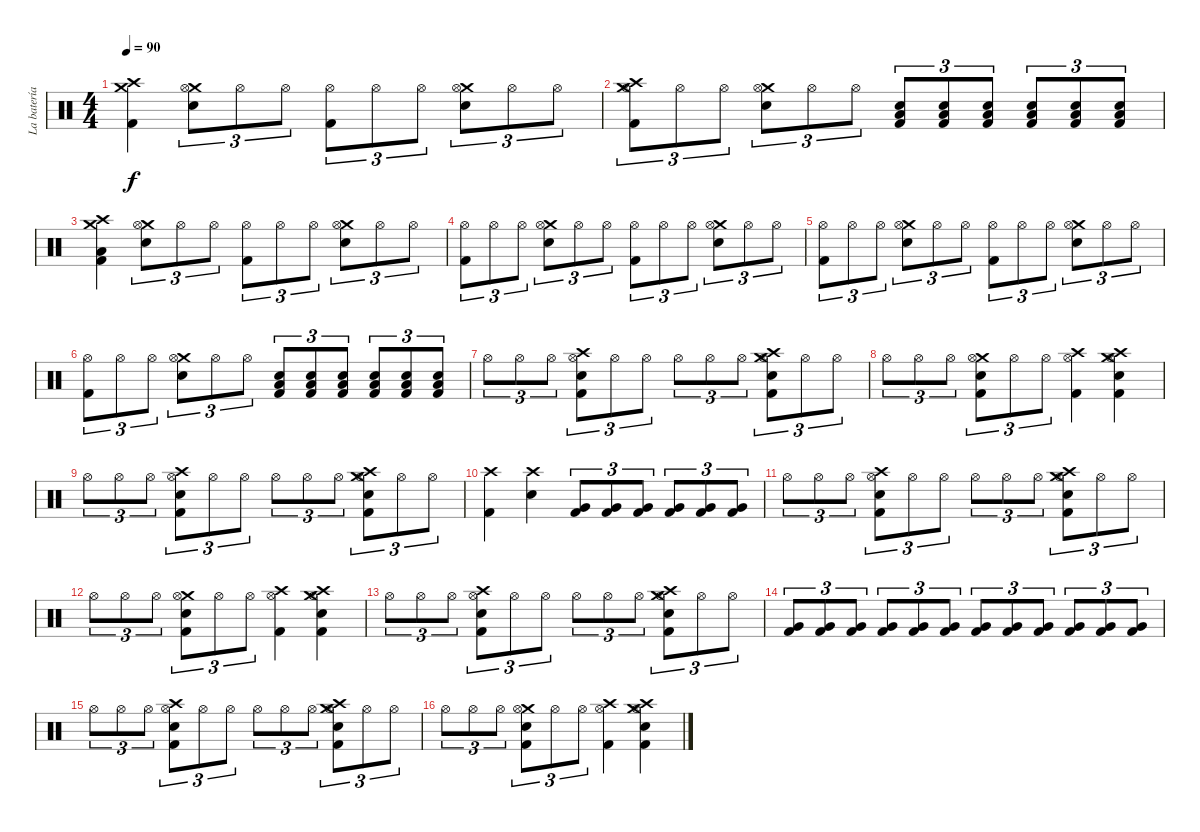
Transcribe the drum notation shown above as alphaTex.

\track ("La batería (con dos huevos xD)" "La batería") {instrument percussion}
\staff {score}
\articulation defaults
\ts (4 4)
\tempo 90
\clef neutral
\ks c
("Crash medium (hit)" "Crash high (hit)" "Kick (hit) 2").4{dy f} ("Crash medium (hit)" "Hi-Hat (open)" "Electric Snare (hit)").8{tu (3 2)} "Hi-Hat (open)".8{tu (3 2)} "Hi-Hat (open)".8{tu (3 2)} ("Hi-Hat (open)" "Kick (hit) 2").8{tu (3 2)} "Hi-Hat (open)".8{tu (3 2)} "Hi-Hat (open)".8{tu (3 2)} ("Crash medium (hit)" "Hi-Hat (open)" "Electric Snare (hit)").8{tu (3 2)} "Hi-Hat (open)".8{tu (3 2)} "Hi-Hat (open)".8{tu (3 2)} |
("Crash medium (hit)" "Crash high (hit)" "Hi-Hat (open)" "Kick (hit) 2").8{tu (3 2)} "Hi-Hat (open)".8{tu (3 2)} "Hi-Hat (open)".8{tu (3 2)} ("Crash medium (hit)" "Hi-Hat (open)" "Electric Snare (hit)").8{tu (3 2)} "Hi-Hat (open)".8{tu (3 2)} "Hi-Hat (open)".8{tu (3 2)} ("Low Floor Tom (hit)" "Electric Snare (hit)" "Kick (hit) 2").8{tu (3 2)} ("Low Floor Tom (hit)" "Electric Snare (hit)" "Kick (hit) 2").8{tu (3 2)} ("Low Floor Tom (hit)" "Electric Snare (hit)" "Kick (hit) 2").8{tu (3 2)} ("Low Floor Tom (hit)" "Electric Snare (hit)" "Kick (hit) 2").8{tu (3 2)} ("Low Floor Tom (hit)" "Electric Snare (hit)" "Kick (hit) 2").8{tu (3 2)} ("Low Floor Tom (hit)" "Electric Snare (hit)" "Kick (hit) 2").8{tu (3 2)} |
("Crash medium (hit)" "Crash high (hit)" "Low Floor Tom (hit)" "Kick (hit) 2").4 ("Crash medium (hit)" "Hi-Hat (open)" "Electric Snare (hit)").8{tu (3 2)} "Hi-Hat (open)".8{tu (3 2)} "Hi-Hat (open)".8{tu (3 2)} ("Hi-Hat (open)" "Kick (hit) 2").8{tu (3 2)} "Hi-Hat (open)".8{tu (3 2)} "Hi-Hat (open)".8{tu (3 2)} ("Crash medium (hit)" "Hi-Hat (open)" "Electric Snare (hit)").8{tu (3 2)} "Hi-Hat (open)".8{tu (3 2)} "Hi-Hat (open)".8{tu (3 2)} |
("Hi-Hat (open)" "Kick (hit) 2").8{tu (3 2)} "Hi-Hat (open)".8{tu (3 2)} "Hi-Hat (open)".8{tu (3 2)} ("Crash medium (hit)" "Hi-Hat (open)" "Electric Snare (hit)").8{tu (3 2)} "Hi-Hat (open)".8{tu (3 2)} "Hi-Hat (open)".8{tu (3 2)} ("Hi-Hat (open)" "Kick (hit) 2").8{tu (3 2)} "Hi-Hat (open)".8{tu (3 2)} "Hi-Hat (open)".8{tu (3 2)} ("Crash medium (hit)" "Hi-Hat (open)" "Electric Snare (hit)").8{tu (3 2)} "Hi-Hat (open)".8{tu (3 2)} "Hi-Hat (open)".8{tu (3 2)} |
("Hi-Hat (open)" "Kick (hit) 2").8{tu (3 2)} "Hi-Hat (open)".8{tu (3 2)} "Hi-Hat (open)".8{tu (3 2)} ("Crash medium (hit)" "Hi-Hat (open)" "Electric Snare (hit)").8{tu (3 2)} "Hi-Hat (open)".8{tu (3 2)} "Hi-Hat (open)".8{tu (3 2)} ("Hi-Hat (open)" "Kick (hit) 2").8{tu (3 2)} "Hi-Hat (open)".8{tu (3 2)} "Hi-Hat (open)".8{tu (3 2)} ("Crash medium (hit)" "Hi-Hat (open)" "Electric Snare (hit)").8{tu (3 2)} "Hi-Hat (open)".8{tu (3 2)} "Hi-Hat (open)".8{tu (3 2)} |
("Hi-Hat (open)" "Kick (hit) 2").8{tu (3 2)} "Hi-Hat (open)".8{tu (3 2)} "Hi-Hat (open)".8{tu (3 2)} ("Crash medium (hit)" "Hi-Hat (open)" "Electric Snare (hit)").8{tu (3 2)} "Hi-Hat (open)".8{tu (3 2)} "Hi-Hat (open)".8{tu (3 2)} ("Low Floor Tom (hit)" "Electric Snare (hit)" "Kick (hit) 2").8{tu (3 2)} ("Low Floor Tom (hit)" "Electric Snare (hit)" "Kick (hit) 2").8{tu (3 2)} ("Low Floor Tom (hit)" "Electric Snare (hit)" "Kick (hit) 2").8{tu (3 2)} ("Low Floor Tom (hit)" "Electric Snare (hit)" "Kick (hit) 2").8{tu (3 2)} ("Low Floor Tom (hit)" "Electric Snare (hit)" "Kick (hit) 2").8{tu (3 2)} ("Low Floor Tom (hit)" "Electric Snare (hit)" "Kick (hit) 2").8{tu (3 2)} |
"Hi-Hat (open)".8{tu (3 2)} "Hi-Hat (open)".8{tu (3 2)} "Hi-Hat (open)".8{tu (3 2)} ("Crash high (hit)" "Hi-Hat (open)" "Electric Snare (hit)" "Kick (hit) 2").8{tu (3 2)} "Hi-Hat (open)".8{tu (3 2)} "Hi-Hat (open)".8{tu (3 2)} "Hi-Hat (open)".8{tu (3 2)} "Hi-Hat (open)".8{tu (3 2)} "Hi-Hat (open)".8{tu (3 2)} ("Crash medium (hit)" "Hi-Hat (open)" "Crash high (hit)" "Electric Snare (hit)" "Kick (hit) 2").8{tu (3 2)} "Hi-Hat (open)".8{tu (3 2)} "Hi-Hat (open)".8{tu (3 2)} |
"Hi-Hat (open)".8{tu (3 2)} "Hi-Hat (open)".8{tu (3 2)} "Hi-Hat (open)".8{tu (3 2)} ("Crash medium (hit)" "Hi-Hat (open)" "Electric Snare (hit)" "Kick (hit) 2").8{tu (3 2)} "Hi-Hat (open)".8{tu (3 2)} "Hi-Hat (open)".8{tu (3 2)} ("Hi-Hat (open)" "Crash high (hit)" "Kick (hit) 2").4 ("Crash medium (hit)" "Hi-Hat (open)" "Crash high (hit)" "Electric Snare (hit)" "Kick (hit) 2").4 |
"Hi-Hat (open)".8{tu (3 2)} "Hi-Hat (open)".8{tu (3 2)} "Hi-Hat (open)".8{tu (3 2)} ("Crash high (hit)" "Hi-Hat (open)" "Electric Snare (hit)" "Kick (hit) 2").8{tu (3 2)} "Hi-Hat (open)".8{tu (3 2)} "Hi-Hat (open)".8{tu (3 2)} "Hi-Hat (open)".8{tu (3 2)} "Hi-Hat (open)".8{tu (3 2)} "Hi-Hat (open)".8{tu (3 2)} ("Crash medium (hit)" "Hi-Hat (open)" "Crash high (hit)" "Electric Snare (hit)" "Kick (hit) 2").8{tu (3 2)} "Hi-Hat (open)".8{tu (3 2)} "Hi-Hat (open)".8{tu (3 2)} |
("Crash high (hit)" "Kick (hit) 2").4 ("Crash high (hit)" "Electric Snare (hit)").4 ("Very Low Tom (hit)" "Kick (hit) 2").8{tu (3 2)} ("Very Low Tom (hit)" "Kick (hit) 2").8{tu (3 2)} ("Very Low Tom (hit)" "Kick (hit) 2").8{tu (3 2)} ("Very Low Tom (hit)" "Kick (hit) 2").8{tu (3 2)} ("Very Low Tom (hit)" "Kick (hit) 2").8{tu (3 2)} ("Very Low Tom (hit)" "Kick (hit) 2").8{tu (3 2)} |
"Hi-Hat (open)".8{tu (3 2)} "Hi-Hat (open)".8{tu (3 2)} "Hi-Hat (open)".8{tu (3 2)} ("Crash high (hit)" "Hi-Hat (open)" "Electric Snare (hit)" "Kick (hit) 2").8{tu (3 2)} "Hi-Hat (open)".8{tu (3 2)} "Hi-Hat (open)".8{tu (3 2)} "Hi-Hat (open)".8{tu (3 2)} "Hi-Hat (open)".8{tu (3 2)} "Hi-Hat (open)".8{tu (3 2)} ("Crash medium (hit)" "Hi-Hat (open)" "Crash high (hit)" "Electric Snare (hit)" "Kick (hit) 2").8{tu (3 2)} "Hi-Hat (open)".8{tu (3 2)} "Hi-Hat (open)".8{tu (3 2)} |
"Hi-Hat (open)".8{tu (3 2)} "Hi-Hat (open)".8{tu (3 2)} "Hi-Hat (open)".8{tu (3 2)} ("Crash medium (hit)" "Hi-Hat (open)" "Electric Snare (hit)" "Kick (hit) 2").8{tu (3 2)} "Hi-Hat (open)".8{tu (3 2)} "Hi-Hat (open)".8{tu (3 2)} ("Hi-Hat (open)" "Crash high (hit)" "Kick (hit) 2").4 ("Crash medium (hit)" "Hi-Hat (open)" "Crash high (hit)" "Electric Snare (hit)" "Kick (hit) 2").4 |
"Hi-Hat (open)".8{tu (3 2)} "Hi-Hat (open)".8{tu (3 2)} "Hi-Hat (open)".8{tu (3 2)} ("Crash high (hit)" "Hi-Hat (open)" "Electric Snare (hit)" "Kick (hit) 2").8{tu (3 2)} "Hi-Hat (open)".8{tu (3 2)} "Hi-Hat (open)".8{tu (3 2)} "Hi-Hat (open)".8{tu (3 2)} "Hi-Hat (open)".8{tu (3 2)} "Hi-Hat (open)".8{tu (3 2)} ("Crash medium (hit)" "Hi-Hat (open)" "Crash high (hit)" "Electric Snare (hit)" "Kick (hit) 2").8{tu (3 2)} "Hi-Hat (open)".8{tu (3 2)} "Hi-Hat (open)".8{tu (3 2)} |
("Very Low Tom (hit)" "Kick (hit) 2").8{tu (3 2)} ("Very Low Tom (hit)" "Kick (hit) 2").8{tu (3 2)} ("Very Low Tom (hit)" "Kick (hit) 2").8{tu (3 2)} ("Very Low Tom (hit)" "Kick (hit) 2").8{tu (3 2)} ("Very Low Tom (hit)" "Kick (hit) 2").8{tu (3 2)} ("Very Low Tom (hit)" "Kick (hit) 2").8{tu (3 2)} ("Very Low Tom (hit)" "Kick (hit) 2").8{tu (3 2)} ("Very Low Tom (hit)" "Kick (hit) 2").8{tu (3 2)} ("Very Low Tom (hit)" "Kick (hit) 2").8{tu (3 2)} ("Very Low Tom (hit)" "Kick (hit) 2").8{tu (3 2)} ("Very Low Tom (hit)" "Kick (hit) 2").8{tu (3 2)} ("Very Low Tom (hit)" "Kick (hit) 2").8{tu (3 2)} |
"Hi-Hat (open)".8{tu (3 2)} "Hi-Hat (open)".8{tu (3 2)} "Hi-Hat (open)".8{tu (3 2)} ("Crash high (hit)" "Hi-Hat (open)" "Electric Snare (hit)" "Kick (hit) 2").8{tu (3 2)} "Hi-Hat (open)".8{tu (3 2)} "Hi-Hat (open)".8{tu (3 2)} "Hi-Hat (open)".8{tu (3 2)} "Hi-Hat (open)".8{tu (3 2)} "Hi-Hat (open)".8{tu (3 2)} ("Crash medium (hit)" "Hi-Hat (open)" "Crash high (hit)" "Electric Snare (hit)" "Kick (hit) 2").8{tu (3 2)} "Hi-Hat (open)".8{tu (3 2)} "Hi-Hat (open)".8{tu (3 2)} |
"Hi-Hat (open)".8{tu (3 2)} "Hi-Hat (open)".8{tu (3 2)} "Hi-Hat (open)".8{tu (3 2)} ("Crash medium (hit)" "Hi-Hat (open)" "Electric Snare (hit)" "Kick (hit) 2").8{tu (3 2)} "Hi-Hat (open)".8{tu (3 2)} "Hi-Hat (open)".8{tu (3 2)} ("Hi-Hat (open)" "Crash high (hit)" "Kick (hit) 2").4 ("Crash medium (hit)" "Hi-Hat (open)" "Crash high (hit)" "Electric Snare (hit)" "Kick (hit) 2").4
